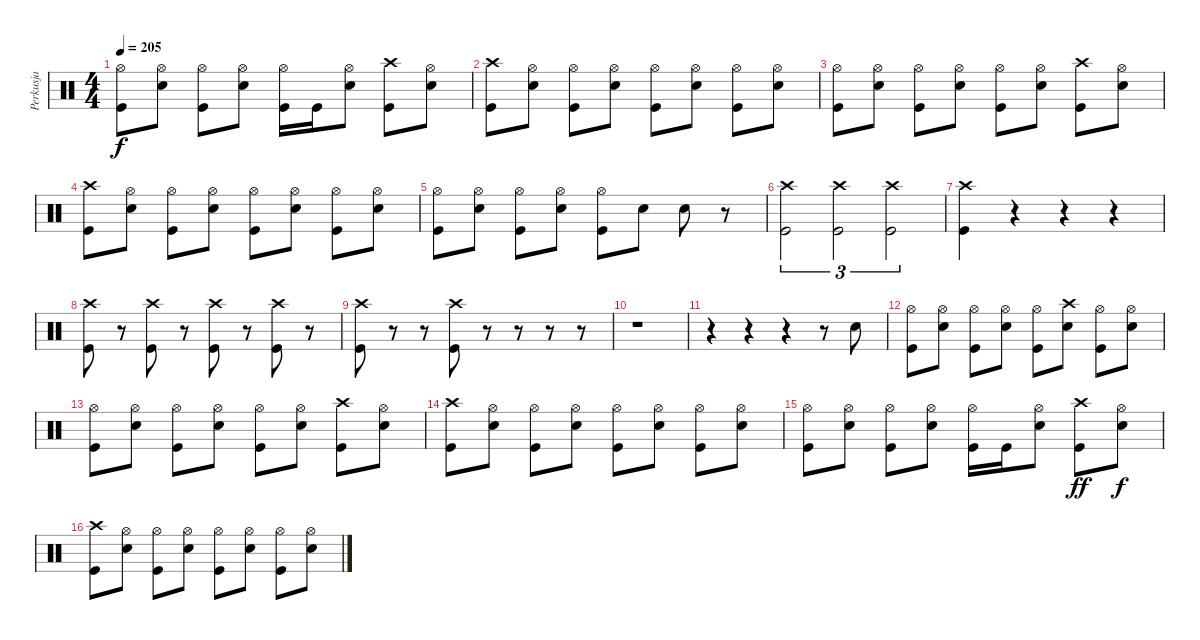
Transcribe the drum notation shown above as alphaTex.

\track ("Perkusja" "Perkusja") {instrument percussion}
\staff {score}
\articulation defaults
\ts (4 4)
\tempo 205
\clef neutral
\ks c
("Hi-Hat (open)" "Kick (hit)").8{dy f} ("Hi-Hat (open)" "Snare (hit) 2").8 ("Hi-Hat (open)" "Kick (hit)").8 ("Hi-Hat (open)" "Snare (hit) 2").8 ("Hi-Hat (open)" "Kick (hit)").16 "Kick (hit)".16 ("Hi-Hat (open)" "Snare (hit) 2").8 ("Crash high (hit)" "Kick (hit)").8 ("Hi-Hat (open)" "Snare (hit) 2").8 |
("Crash high (hit)" "Kick (hit)").8 ("Hi-Hat (open)" "Snare (hit) 2").8 ("Hi-Hat (open)" "Kick (hit)").8 ("Hi-Hat (open)" "Snare (hit) 2").8 ("Hi-Hat (open)" "Kick (hit)").8 ("Hi-Hat (open)" "Snare (hit) 2").8 ("Hi-Hat (open)" "Kick (hit)").8 ("Hi-Hat (open)" "Snare (hit) 2").8 |
("Hi-Hat (open)" "Kick (hit)").8 ("Hi-Hat (open)" "Snare (hit) 2").8 ("Hi-Hat (open)" "Kick (hit)").8 ("Hi-Hat (open)" "Snare (hit) 2").8 ("Hi-Hat (open)" "Kick (hit)").8 ("Hi-Hat (open)" "Snare (hit) 2").8 ("Crash high (hit)" "Kick (hit)").8 ("Hi-Hat (open)" "Snare (hit) 2").8 |
("Crash high (hit)" "Kick (hit)").8 ("Hi-Hat (open)" "Snare (hit) 2").8 ("Hi-Hat (open)" "Kick (hit)").8 ("Hi-Hat (open)" "Snare (hit) 2").8 ("Hi-Hat (open)" "Kick (hit)").8 ("Hi-Hat (open)" "Snare (hit) 2").8 ("Hi-Hat (open)" "Kick (hit)").8 ("Hi-Hat (open)" "Snare (hit) 2").8 |
("Hi-Hat (open)" "Kick (hit)").8 ("Hi-Hat (open)" "Snare (hit) 2").8 ("Hi-Hat (open)" "Kick (hit)").8 ("Hi-Hat (open)" "Snare (hit) 2").8 ("Hi-Hat (open)" "Kick (hit)").8 "Snare (hit) 2".8 "Snare (hit) 2".8 r.8 |
("Crash high (hit)" "Kick (hit)").2{tu (3 2)} ("Crash high (hit)" "Kick (hit)").2{tu (3 2)} ("Crash high (hit)" "Kick (hit)").2{tu (3 2)} |
("Crash high (hit)" "Kick (hit)").4 r.4 r.4 r.4 |
("Crash high (hit)" "Kick (hit)").8 r.8 ("Crash high (hit)" "Kick (hit)").8 r.8 ("Crash high (hit)" "Kick (hit)").8 r.8 ("Crash high (hit)" "Kick (hit)").8 r.8 |
("Crash high (hit)" "Kick (hit)").8 r.8 r.8 ("Crash high (hit)" "Kick (hit)").8 r.8 r.8 r.8 r.8 |
r.1 |
r.4 r.4 r.4 r.8 "Snare (hit) 2".8 |
("Hi-Hat (open)" "Kick (hit)").8 ("Hi-Hat (open)" "Snare (hit) 2").8 ("Hi-Hat (open)" "Kick (hit)").8 ("Hi-Hat (open)" "Snare (hit) 2").8 ("Hi-Hat (open)" "Kick (hit)").8 ("Crash high (hit)" "Snare (hit) 2").8 ("Hi-Hat (open)" "Kick (hit)").8 ("Hi-Hat (open)" "Snare (hit) 2").8 |
("Hi-Hat (open)" "Kick (hit)").8 ("Hi-Hat (open)" "Snare (hit) 2").8 ("Hi-Hat (open)" "Kick (hit)").8 ("Hi-Hat (open)" "Snare (hit) 2").8 ("Hi-Hat (open)" "Kick (hit)").8 ("Hi-Hat (open)" "Snare (hit) 2").8 ("Crash high (hit)" "Kick (hit)").8 ("Hi-Hat (open)" "Snare (hit) 2").8 |
("Crash high (hit)" "Kick (hit)").8 ("Hi-Hat (open)" "Snare (hit) 2").8 ("Hi-Hat (open)" "Kick (hit)").8 ("Hi-Hat (open)" "Snare (hit) 2").8 ("Hi-Hat (open)" "Kick (hit)").8 ("Hi-Hat (open)" "Snare (hit) 2").8 ("Hi-Hat (open)" "Kick (hit)").8 ("Hi-Hat (open)" "Snare (hit) 2").8 |
("Hi-Hat (open)" "Kick (hit)").8 ("Hi-Hat (open)" "Snare (hit) 2").8 ("Hi-Hat (open)" "Kick (hit)").8 ("Hi-Hat (open)" "Snare (hit) 2").8 ("Hi-Hat (open)" "Kick (hit)").16 "Kick (hit)".16 ("Hi-Hat (open)" "Snare (hit) 2").8 ("Crash high (hit)" "Kick (hit)").8{dy ff} ("Hi-Hat (open)" "Snare (hit) 2").8{dy f} |
("Crash high (hit)" "Kick (hit)").8 ("Hi-Hat (open)" "Snare (hit) 2").8 ("Hi-Hat (open)" "Kick (hit)").8 ("Hi-Hat (open)" "Snare (hit) 2").8 ("Hi-Hat (open)" "Kick (hit)").8 ("Hi-Hat (open)" "Snare (hit) 2").8 ("Hi-Hat (open)" "Kick (hit)").8 ("Hi-Hat (open)" "Snare (hit) 2").8
